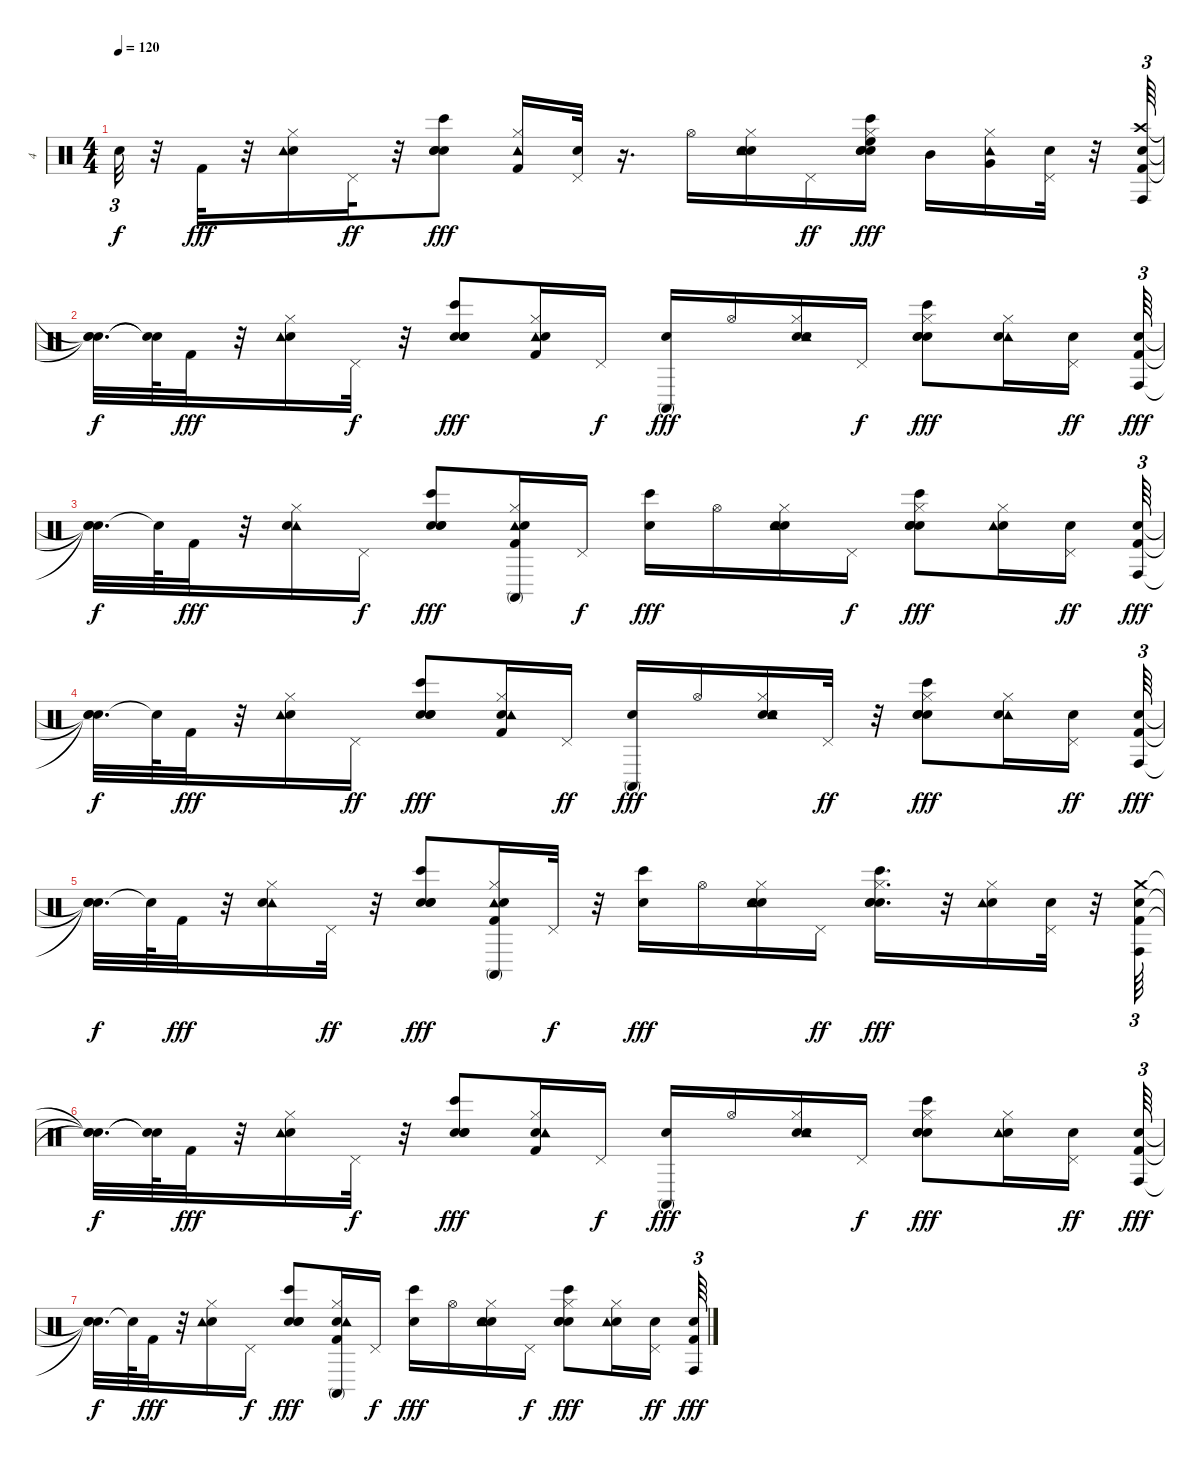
\track ("4" "4") {instrument percussion}
\staff {score}
\articulation defaults
\ts (4 4)
\tempo 120
\clef neutral
\ks c "Snare (hit)"{t}.32{tu (3 2) dy f}
r.32 "Kick (hit) 2".32{dy fff} r.32 ("Hi-Hat (closed)" "Electric Snare (hit)" "Tambourine (hit)").16 "Pedal Hi-Hat (hit)".32{dy ff} r.32 ("Snare (hit) 2" "Electric Snare (hit)" "Bongo High (hit)" "Hand Clap (hit)").8{dy fff} ("Hi-Hat (closed)" "Kick (hit) 2" "Tambourine (hit)").16 ("Pedal Hi-Hat (hit)" "Electric Snare (hit)").32 r.16{d} "Hi-Hat (open)".16 ("Snare (hit) 2" "Hi-Hat (closed)" "Electric Snare (hit)" "Tambourine (hit)").16 "Pedal Hi-Hat (hit)".16{dy ff} ("Snare (hit) 2" "Electric Snare (hit)" "Hand Clap (hit)" "Hi-Hat (closed)" "Bongo High (hit)" "High Floor Tom (hit)").16{dy fff} "Mid Tom (hit)".16 ("Hi-Hat (closed)" "Very Low Tom (hit)" "Tambourine (hit)").16 ("Pedal Hi-Hat (hit)" "Snare (hit) 2").32 r.32 ("Crash high (hit)" "Kick (hit) 2" "Hand Clap (hit)" "Conga high (hit)").64{tu (3 2)} |
("Snare (hit)"{t} "Snare (hit)"{t} "Snare (hit)"{t}).32{d dy f} ("Snare (hit)"{t} "Snare (hit)"{t}).64 "Kick (hit) 2".32{dy fff} r.32 ("Hi-Hat (closed)" "Hand Clap (hit)" "Tambourine (hit)").16 "Pedal Hi-Hat (hit)".32{dy f} r.32 ("Snare (hit) 2" "Hand Clap (hit)" "Bongo High (hit)" "Electric Snare (hit)").8{dy fff} ("Hi-Hat (closed)" "Tambourine (hit)" "Kick (hit) 2" "Hand Clap (hit)").16 "Pedal Hi-Hat (hit)".16{dy f} ("Hand Clap (hit)" "Conga high (mute)").16{dy fff} "Hi-Hat (open)".16 ("Hi-Hat (closed)" "Snare (hit) 2" "Tambourine (hit)" "Hand Clap (hit)").16 "Pedal Hi-Hat (hit)".16{dy f} ("Snare (hit) 2" "Hi-Hat (closed)" "Bongo High (hit)" "Electric Snare (hit)" "Hand Clap (hit)").8{dy fff} ("Hi-Hat (closed)" "Tambourine (hit)" "Hand Clap (hit)").16 ("Pedal Hi-Hat (hit)" "Snare (hit) 2").16{dy ff} ("Kick (hit) 2" "Hand Clap (hit)" "Conga high (hit)").64{tu (3 2) dy fff} |
("Snare (hit)"{t} "Snare (hit)"{t} "Snare (hit)"{t}).32{d dy f} "Snare (hit)"{t}.64 "Kick (hit) 2".32{dy fff} r.32 ("Hi-Hat (closed)" "Tambourine (hit)" "Hand Clap (hit)").16 "Pedal Hi-Hat (hit)".16{dy f} ("Snare (hit) 2" "Electric Snare (hit)" "Bongo High (hit)" "Hand Clap (hit)").8{dy fff} ("Hi-Hat (closed)" "Kick (hit) 2" "Tambourine (hit)" "Hand Clap (hit)" "Conga high (mute)").16 "Pedal Hi-Hat (hit)".16{dy f} ("Hand Clap (hit)" "Bongo High (hit)").16{dy fff} "Hi-Hat (open)".16 ("Snare (hit) 2" "Hi-Hat (closed)" "Hand Clap (hit)" "Tambourine (hit)").16 "Pedal Hi-Hat (hit)".16{dy f} ("Snare (hit) 2" "Hi-Hat (closed)" "Bongo High (hit)" "Electric Snare (hit)" "Hand Clap (hit)").8{dy fff} ("Hi-Hat (closed)" "Hand Clap (hit)" "Tambourine (hit)").16 ("Pedal Hi-Hat (hit)" "Snare (hit) 2").16{dy ff} ("Hand Clap (hit)" "Kick (hit) 2" "Conga high (hit)").64{tu (3 2) dy fff} |
("Snare (hit)"{t} "Snare (hit)"{t} "Snare (hit)"{t}).32{d dy f} "Snare (hit)"{t}.64 "Kick (hit) 2".32{dy fff} r.32 ("Hi-Hat (closed)" "Hand Clap (hit)" "Tambourine (hit)").16 "Pedal Hi-Hat (hit)".16{dy ff} ("Snare (hit) 2" "Hand Clap (hit)" "Electric Snare (hit)" "Bongo High (hit)").8{dy fff} ("Hi-Hat (closed)" "Hand Clap (hit)" "Kick (hit) 2" "Tambourine (hit)").16 "Pedal Hi-Hat (hit)".16{dy ff} ("Hand Clap (hit)" "Conga high (mute)").16{dy fff} "Hi-Hat (open)".16 ("Snare (hit) 2" "Hi-Hat (closed)" "Hand Clap (hit)" "Tambourine (hit)").16 "Pedal Hi-Hat (hit)".32{dy ff} r.32 ("Snare (hit) 2" "Electric Snare (hit)" "Hi-Hat (closed)" "Bongo High (hit)" "Hand Clap (hit)").8{dy fff} ("Hi-Hat (closed)" "Tambourine (hit)" "Hand Clap (hit)").16 ("Pedal Hi-Hat (hit)" "Snare (hit) 2").16{dy ff} ("Kick (hit) 2" "Hand Clap (hit)" "Conga high (hit)").64{tu (3 2) dy fff} |
("Snare (hit)"{t} "Snare (hit)"{t} "Snare (hit)"{t}).32{d dy f} "Snare (hit)"{t}.64 "Kick (hit) 2".32{dy fff} r.32 ("Hi-Hat (closed)" "Tambourine (hit)" "Hand Clap (hit)").16 "Pedal Hi-Hat (hit)".32{dy ff} r.32 ("Snare (hit) 2" "Electric Snare (hit)" "Bongo High (hit)" "Hand Clap (hit)").8{dy fff} ("Hi-Hat (closed)" "Kick (hit) 2" "Tambourine (hit)" "Hand Clap (hit)" "Conga high (mute)").16 "Pedal Hi-Hat (hit)".32{dy f} r.32 ("Hand Clap (hit)" "Bongo High (hit)").16{dy fff} "Hi-Hat (open)".16 ("Snare (hit) 2" "Hi-Hat (closed)" "Hand Clap (hit)" "Tambourine (hit)").16 "Pedal Hi-Hat (hit)".16{dy ff} ("Snare (hit) 2" "Electric Snare (hit)" "Hi-Hat (closed)" "Bongo High (hit)" "Hand Clap (hit)").16{d dy fff} r.32 ("Hi-Hat (closed)" "Hand Clap (hit)" "Tambourine (hit)").16 ("Pedal Hi-Hat (hit)" "Snare (hit) 2").32 r.32 ("Hand Clap (hit)" "Crash medium (hit)" "Kick (hit) 2" "Conga high (hit)").64{tu (3 2)} |
("Snare (hit)"{t} "Snare (hit)"{t} "Snare (hit)"{t}).32{d dy f} ("Snare (hit)"{t} "Snare (hit)"{t}).64 "Kick (hit) 2".32{dy fff} r.32 ("Hi-Hat (closed)" "Hand Clap (hit)" "Tambourine (hit)").16 "Pedal Hi-Hat (hit)".32{dy f} r.32 ("Snare (hit) 2" "Hand Clap (hit)" "Bongo High (hit)" "Electric Snare (hit)").8{dy fff} ("Hi-Hat (closed)" "Hand Clap (hit)" "Tambourine (hit)" "Kick (hit) 2").16 "Pedal Hi-Hat (hit)".16{dy f} ("Hand Clap (hit)" "Conga high (mute)").16{dy fff} "Hi-Hat (open)".16 ("Hi-Hat (closed)" "Snare (hit) 2" "Hand Clap (hit)" "Tambourine (hit)").16 "Pedal Hi-Hat (hit)".16{dy f} ("Snare (hit) 2" "Hand Clap (hit)" "Hi-Hat (closed)" "Bongo High (hit)" "Electric Snare (hit)").8{dy fff} ("Hi-Hat (closed)" "Hand Clap (hit)" "Tambourine (hit)").16 ("Pedal Hi-Hat (hit)" "Snare (hit) 2").16{dy ff} ("Hand Clap (hit)" "Kick (hit) 2" "Conga high (hit)").64{tu (3 2) dy fff} |
("Snare (hit)"{t} "Snare (hit)"{t} "Snare (hit)"{t}).32{d dy f} "Snare (hit)"{t}.64 "Kick (hit) 2".32{dy fff} r.32 ("Hi-Hat (closed)" "Hand Clap (hit)" "Tambourine (hit)").16 "Pedal Hi-Hat (hit)".16{dy f} ("Snare (hit) 2" "Hand Clap (hit)" "Electric Snare (hit)" "Bongo High (hit)").8{dy fff} ("Hi-Hat (closed)" "Hand Clap (hit)" "Kick (hit) 2" "Tambourine (hit)" "Conga high (mute)").16 "Pedal Hi-Hat (hit)".16{dy f} ("Hand Clap (hit)" "Bongo High (hit)").16{dy fff} "Hi-Hat (open)".16 ("Snare (hit) 2" "Hi-Hat (closed)" "Hand Clap (hit)" "Tambourine (hit)").16 "Pedal Hi-Hat (hit)".16{dy f} ("Snare (hit) 2" "Hand Clap (hit)" "Hi-Hat (closed)" "Bongo High (hit)" "Electric Snare (hit)").8{dy fff} ("Hi-Hat (closed)" "Hand Clap (hit)" "Tambourine (hit)").16 ("Pedal Hi-Hat (hit)" "Snare (hit) 2").16{dy ff} ("Hand Clap (hit)" "Kick (hit) 2" "Conga high (hit)").64{tu (3 2) dy fff}
